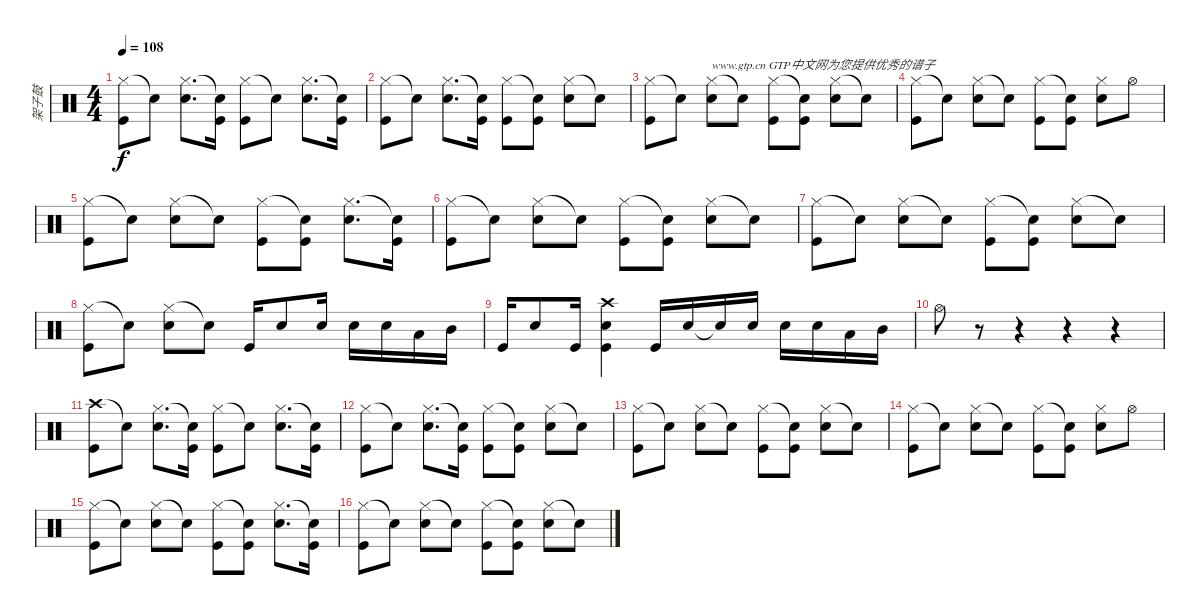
\track ("架子鼓" "架子鼓") {instrument percussion}
\staff {score}
\articulation defaults
\ts (4 4)
\tempo 108
\clef neutral
\ks c
("Hi-Hat (closed)" "Kick (hit)").8{dy f} "Snare (hit)"{t}.8 ("Hi-Hat (closed)" "Snare (hit) 2").8{d} ("Snare (hit)"{t} "Kick (hit)").16 ("Hi-Hat (closed)" "Kick (hit)").8 "Snare (hit)"{t}.8 ("Hi-Hat (closed)" "Snare (hit) 2").8{d} ("Snare (hit)"{t} "Kick (hit)").16 |
("Hi-Hat (closed)" "Kick (hit)").8 "Snare (hit)"{t}.8 ("Hi-Hat (closed)" "Snare (hit) 2").8{d} ("Snare (hit)"{t} "Kick (hit)").16 ("Hi-Hat (closed)" "Kick (hit)").8 ("Snare (hit)"{t} "Kick (hit)").8 ("Hi-Hat (closed)" "Snare (hit) 2").8 "Snare (hit)"{t}.8 |
("Hi-Hat (closed)" "Kick (hit)").8 "Snare (hit)"{t}.8 ("Hi-Hat (closed)" "Snare (hit) 2").8{txt "www.gtp.cn GTP中文网为您提供优秀的谱子"} "Snare (hit)"{t}.8 ("Hi-Hat (closed)" "Kick (hit)").8 ("Snare (hit)"{t} "Kick (hit)").8 ("Hi-Hat (closed)" "Snare (hit) 2").8 "Snare (hit)"{t}.8 |
("Hi-Hat (closed)" "Kick (hit)").8 "Snare (hit)"{t}.8 ("Hi-Hat (closed)" "Snare (hit) 2").8 "Snare (hit)"{t}.8 ("Hi-Hat (closed)" "Kick (hit)").8 ("Snare (hit)"{t} "Kick (hit)").8 ("Hi-Hat (closed)" "Snare (hit) 2").8 "Hi-Hat (open)".8 |
("Hi-Hat (closed)" "Kick (hit)").8 "Snare (hit)"{t}.8 ("Hi-Hat (closed)" "Snare (hit) 2").8 "Snare (hit)"{t}.8 ("Hi-Hat (closed)" "Kick (hit)").8 ("Snare (hit)"{t} "Kick (hit)").8 ("Hi-Hat (closed)" "Snare (hit) 2").8{d} ("Snare (hit)"{t} "Kick (hit)").16 |
("Hi-Hat (closed)" "Kick (hit)").8 "Snare (hit)"{t}.8 ("Hi-Hat (closed)" "Snare (hit) 2").8 "Snare (hit)"{t}.8 ("Hi-Hat (closed)" "Kick (hit)").8 ("Snare (hit)"{t} "Kick (hit)").8 ("Hi-Hat (closed)" "Snare (hit) 2").8 "Snare (hit)"{t}.8 |
("Hi-Hat (closed)" "Kick (hit)").8 "Snare (hit)"{t}.8 ("Hi-Hat (closed)" "Snare (hit) 2").8 "Snare (hit)"{t}.8 ("Hi-Hat (closed)" "Kick (hit)").8 ("Snare (hit)"{t} "Kick (hit)").8 ("Hi-Hat (closed)" "Snare (hit) 2").8 "Snare (hit)"{t}.8 |
("Hi-Hat (closed)" "Kick (hit)").8 "Snare (hit)"{t}.8 ("Hi-Hat (closed)" "Snare (hit) 2").8 "Snare (hit)"{t}.8 "Kick (hit)".16 "Snare (hit) 2".8 "Snare (hit) 2".16 "Snare (hit) 2".16 "Snare (hit) 2".16 "Low Tom (hit)".16 "Mid Tom (hit)".16 |
"Kick (hit)".16 "Snare (hit) 2".8 "Kick (hit)".16 ("Crash high (hit)" "Snare (hit) 2" "Kick (hit)").4 "Kick (hit)".16 "Snare (hit) 2".16 "Snare (hit) 2"{t}.16 "Snare (hit) 2".16 "Snare (hit) 2".16 "Snare (hit) 2".16 "Low Tom (hit)".16 "Mid Tom (hit)".16 |
"Hi-Hat (open)".8 r.8 r.4 r.4 r.4 |
("Crash high (hit)" "Kick (hit)").8 "Snare (hit)"{t}.8 ("Hi-Hat (closed)" "Snare (hit) 2").8{d} ("Snare (hit)"{t} "Kick (hit)").16 ("Hi-Hat (closed)" "Kick (hit)").8 "Snare (hit)"{t}.8 ("Hi-Hat (closed)" "Snare (hit) 2").8{d} ("Snare (hit)"{t} "Kick (hit)").16 |
("Hi-Hat (closed)" "Kick (hit)").8 "Snare (hit)"{t}.8 ("Hi-Hat (closed)" "Snare (hit) 2").8{d} ("Snare (hit)"{t} "Kick (hit)").16 ("Hi-Hat (closed)" "Kick (hit)").8 ("Snare (hit)"{t} "Kick (hit)").8 ("Hi-Hat (closed)" "Snare (hit) 2").8 "Snare (hit)"{t}.8 |
("Hi-Hat (closed)" "Kick (hit)").8 "Snare (hit)"{t}.8 ("Hi-Hat (closed)" "Snare (hit) 2").8 "Snare (hit)"{t}.8 ("Hi-Hat (closed)" "Kick (hit)").8 ("Snare (hit)"{t} "Kick (hit)").8 ("Hi-Hat (closed)" "Snare (hit) 2").8 "Snare (hit)"{t}.8 |
("Hi-Hat (closed)" "Kick (hit)").8 "Snare (hit)"{t}.8 ("Hi-Hat (closed)" "Snare (hit) 2").8 "Snare (hit)"{t}.8 ("Hi-Hat (closed)" "Kick (hit)").8 ("Snare (hit)"{t} "Kick (hit)").8 ("Hi-Hat (closed)" "Snare (hit) 2").8 "Hi-Hat (open)".8 |
("Hi-Hat (closed)" "Kick (hit)").8 "Snare (hit)"{t}.8 ("Hi-Hat (closed)" "Snare (hit) 2").8 "Snare (hit)"{t}.8 ("Hi-Hat (closed)" "Kick (hit)").8 ("Snare (hit)"{t} "Kick (hit)").8 ("Hi-Hat (closed)" "Snare (hit) 2").8{d} ("Snare (hit)"{t} "Kick (hit)").16 |
("Hi-Hat (closed)" "Kick (hit)").8 "Snare (hit)"{t}.8 ("Hi-Hat (closed)" "Snare (hit) 2").8 "Snare (hit)"{t}.8 ("Hi-Hat (closed)" "Kick (hit)").8 ("Snare (hit)"{t} "Kick (hit)").8 ("Hi-Hat (closed)" "Snare (hit) 2").8 "Snare (hit)"{t}.8
